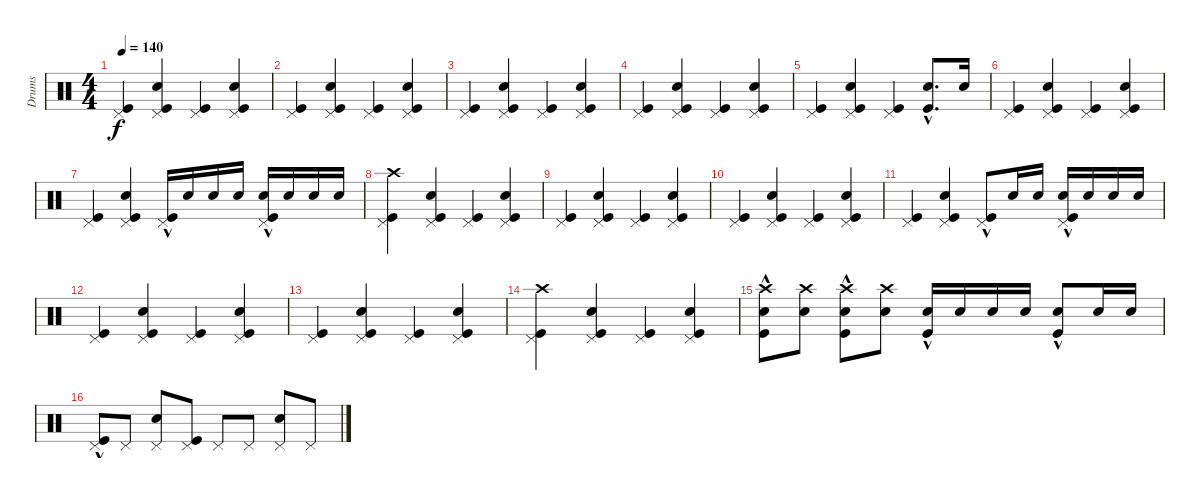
\track ("Drums" "Drums") {instrument percussion}
\staff {score}
\articulation defaults
\ts (4 4)
\tempo 140
\clef neutral
\ks c
("Kick (hit)" "Pedal Hi-Hat (hit)").4{dy f} ("Kick (hit)" "Pedal Hi-Hat (hit)" "Snare (hit) 2").4 ("Kick (hit)" "Pedal Hi-Hat (hit)").4 ("Kick (hit)" "Pedal Hi-Hat (hit)" "Snare (hit) 2").4 |
("Kick (hit)" "Pedal Hi-Hat (hit)").4 ("Kick (hit)" "Pedal Hi-Hat (hit)" "Snare (hit) 2").4 ("Kick (hit)" "Pedal Hi-Hat (hit)").4 ("Kick (hit)" "Pedal Hi-Hat (hit)" "Snare (hit) 2").4 |
("Kick (hit)" "Pedal Hi-Hat (hit)").4 ("Kick (hit)" "Pedal Hi-Hat (hit)" "Snare (hit) 2").4 ("Kick (hit)" "Pedal Hi-Hat (hit)").4 ("Kick (hit)" "Pedal Hi-Hat (hit)" "Snare (hit) 2").4 |
("Kick (hit)" "Pedal Hi-Hat (hit)").4 ("Kick (hit)" "Pedal Hi-Hat (hit)" "Snare (hit) 2").4 ("Kick (hit)" "Pedal Hi-Hat (hit)").4 ("Kick (hit)" "Pedal Hi-Hat (hit)" "Snare (hit) 2").4 |
("Kick (hit)" "Pedal Hi-Hat (hit)").4 ("Kick (hit)" "Pedal Hi-Hat (hit)" "Snare (hit) 2").4 ("Kick (hit)" "Pedal Hi-Hat (hit)").4 ("Kick (hit)"{hac} "Snare (hit) 2").8{d} "Snare (hit) 2".16 |
("Kick (hit)" "Pedal Hi-Hat (hit)").4 ("Kick (hit)" "Pedal Hi-Hat (hit)" "Snare (hit) 2").4 ("Kick (hit)" "Pedal Hi-Hat (hit)").4 ("Kick (hit)" "Pedal Hi-Hat (hit)" "Snare (hit) 2").4 |
("Kick (hit)" "Pedal Hi-Hat (hit)").4 ("Kick (hit)" "Pedal Hi-Hat (hit)" "Snare (hit) 2").4 ("Kick (hit)"{hac} "Pedal Hi-Hat (hit)").16 "Snare (hit) 2".16 "Snare (hit) 2".16 "Snare (hit) 2".16 ("Kick (hit)"{hac} "Snare (hit) 2" "Pedal Hi-Hat (hit)").16 "Snare (hit) 2".16 "Snare (hit) 2".16 "Snare (hit) 2".16 |
("Kick (hit)" "Crash high (hit)" "Pedal Hi-Hat (hit)").4 ("Kick (hit)" "Pedal Hi-Hat (hit)" "Snare (hit) 2").4 ("Kick (hit)" "Pedal Hi-Hat (hit)").4 ("Kick (hit)" "Pedal Hi-Hat (hit)" "Snare (hit) 2").4 |
("Kick (hit)" "Pedal Hi-Hat (hit)").4 ("Kick (hit)" "Pedal Hi-Hat (hit)" "Snare (hit) 2").4 ("Kick (hit)" "Pedal Hi-Hat (hit)").4 ("Kick (hit)" "Pedal Hi-Hat (hit)" "Snare (hit) 2").4 |
("Kick (hit)" "Pedal Hi-Hat (hit)").4 ("Kick (hit)" "Pedal Hi-Hat (hit)" "Snare (hit) 2").4 ("Kick (hit)" "Pedal Hi-Hat (hit)").4 ("Kick (hit)" "Pedal Hi-Hat (hit)" "Snare (hit) 2").4 |
("Kick (hit)" "Pedal Hi-Hat (hit)").4 ("Kick (hit)" "Pedal Hi-Hat (hit)" "Snare (hit) 2").4 ("Kick (hit)"{hac} "Pedal Hi-Hat (hit)").8 "Snare (hit) 2".16 "Snare (hit) 2".16 ("Kick (hit)"{hac} "Pedal Hi-Hat (hit)" "Snare (hit) 2").16 "Snare (hit) 2".16 "Snare (hit) 2".16 "Snare (hit) 2".16 |
("Kick (hit)" "Pedal Hi-Hat (hit)").4 ("Kick (hit)" "Pedal Hi-Hat (hit)" "Snare (hit) 2").4 ("Kick (hit)" "Pedal Hi-Hat (hit)").4 ("Kick (hit)" "Pedal Hi-Hat (hit)" "Snare (hit) 2").4 |
("Kick (hit)" "Pedal Hi-Hat (hit)").4 ("Kick (hit)" "Pedal Hi-Hat (hit)" "Snare (hit) 2").4 ("Kick (hit)" "Pedal Hi-Hat (hit)").4 ("Kick (hit)" "Pedal Hi-Hat (hit)" "Snare (hit) 2").4 |
("Kick (hit)" "Pedal Hi-Hat (hit)" "Crash high (hit)").4 ("Kick (hit)" "Pedal Hi-Hat (hit)" "Snare (hit) 2").4 ("Kick (hit)" "Pedal Hi-Hat (hit)").4 ("Kick (hit)" "Pedal Hi-Hat (hit)" "Snare (hit) 2").4 |
("Kick (hit)"{hac} "Crash high (hit)" "Snare (hit) 2").8 ("Crash high (hit)" "Snare (hit) 2").8 ("Kick (hit)"{hac} "Crash high (hit)" "Snare (hit) 2").8 ("Crash high (hit)" "Snare (hit) 2").8 ("Kick (hit)"{hac} "Snare (hit) 2").16 "Snare (hit) 2".16 "Snare (hit) 2".16 "Snare (hit) 2".16 ("Kick (hit)"{hac} "Snare (hit) 2").8 "Snare (hit) 2".16 "Snare (hit) 2".16 |
("Kick (hit)"{hac} "Pedal Hi-Hat (hit)").8 "Pedal Hi-Hat (hit)".8 ("Pedal Hi-Hat (hit)" "Snare (hit) 2").8 ("Kick (hit)" "Pedal Hi-Hat (hit)").8 "Pedal Hi-Hat (hit)".8 "Pedal Hi-Hat (hit)".8 ("Pedal Hi-Hat (hit)" "Snare (hit) 2").8 "Pedal Hi-Hat (hit)".8
